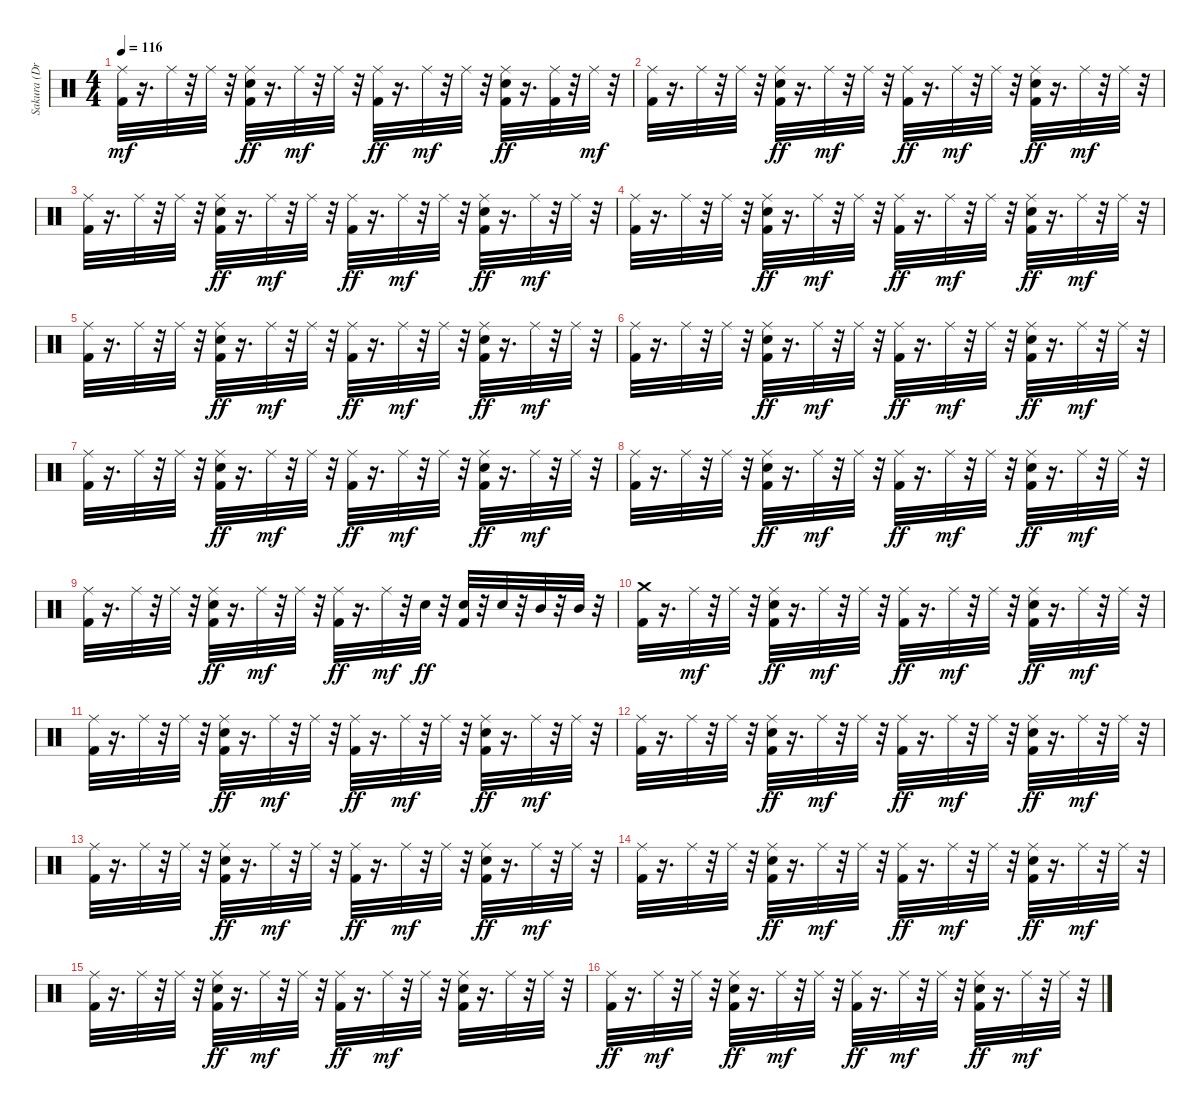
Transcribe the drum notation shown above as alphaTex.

\track ("Sakura (Drums)" "Sakura (Dr") {instrument percussion}
\staff {score}
\articulation defaults
\ts (4 4)
\tempo 116
\clef neutral
\ks c
("Kick (hit) 2" "Ride (middle)").32{dy mf} r.16{d} "Ride (middle)".32 r.32 "Ride (middle)".32 r.32 ("Ride (middle)" "Electric Snare (hit)" "Kick (hit) 2").32{dy ff} r.16{d} "Ride (middle)".32{dy mf} r.32 "Ride (middle)".32 r.32 ("Ride (middle)" "Kick (hit) 2").32{dy ff} r.16{d} "Ride (middle)".32{dy mf} r.32 "Ride (middle)".32 r.32 ("Ride (middle)" "Electric Snare (hit)" "Kick (hit) 2").32{dy ff} r.16{d} ("Ride (middle)" "Kick (hit) 2").32 r.32 "Ride (middle)".32{dy mf} r.32 |
("Kick (hit) 2" "Ride (middle)").32 r.16{d} "Ride (middle)".32 r.32 "Ride (middle)".32 r.32 ("Ride (middle)" "Electric Snare (hit)" "Kick (hit) 2").32{dy ff} r.16{d} "Ride (middle)".32{dy mf} r.32 "Ride (middle)".32 r.32 ("Ride (middle)" "Kick (hit) 2").32{dy ff} r.16{d} "Ride (middle)".32{dy mf} r.32 "Ride (middle)".32 r.32 ("Ride (middle)" "Electric Snare (hit)" "Kick (hit) 2").32{dy ff} r.16{d} "Ride (middle)".32{dy mf} r.32 "Ride (middle)".32 r.32 |
("Kick (hit) 2" "Ride (middle)").32 r.16{d} "Ride (middle)".32 r.32 "Ride (middle)".32 r.32 ("Ride (middle)" "Electric Snare (hit)" "Kick (hit) 2").32{dy ff} r.16{d} "Ride (middle)".32{dy mf} r.32 "Ride (middle)".32 r.32 ("Ride (middle)" "Kick (hit) 2").32{dy ff} r.16{d} "Ride (middle)".32{dy mf} r.32 "Ride (middle)".32 r.32 ("Ride (middle)" "Electric Snare (hit)" "Kick (hit) 2").32{dy ff} r.16{d} "Ride (middle)".32{dy mf} r.32 "Ride (middle)".32 r.32 |
("Kick (hit) 2" "Ride (middle)").32 r.16{d} "Ride (middle)".32 r.32 "Ride (middle)".32 r.32 ("Ride (middle)" "Electric Snare (hit)" "Kick (hit) 2").32{dy ff} r.16{d} "Ride (middle)".32{dy mf} r.32 "Ride (middle)".32 r.32 ("Ride (middle)" "Kick (hit) 2").32{dy ff} r.16{d} "Ride (middle)".32{dy mf} r.32 "Ride (middle)".32 r.32 ("Ride (middle)" "Electric Snare (hit)" "Kick (hit) 2").32{dy ff} r.16{d} "Ride (middle)".32{dy mf} r.32 "Ride (middle)".32 r.32 |
("Kick (hit) 2" "Ride (middle)").32 r.16{d} "Ride (middle)".32 r.32 "Ride (middle)".32 r.32 ("Ride (middle)" "Electric Snare (hit)" "Kick (hit) 2").32{dy ff} r.16{d} "Ride (middle)".32{dy mf} r.32 "Ride (middle)".32 r.32 ("Ride (middle)" "Kick (hit) 2").32{dy ff} r.16{d} "Ride (middle)".32{dy mf} r.32 "Ride (middle)".32 r.32 ("Ride (middle)" "Electric Snare (hit)" "Kick (hit) 2").32{dy ff} r.16{d} "Ride (middle)".32{dy mf} r.32 "Ride (middle)".32 r.32 |
("Kick (hit) 2" "Ride (middle)").32 r.16{d} "Ride (middle)".32 r.32 "Ride (middle)".32 r.32 ("Ride (middle)" "Electric Snare (hit)" "Kick (hit) 2").32{dy ff} r.16{d} "Ride (middle)".32{dy mf} r.32 "Ride (middle)".32 r.32 ("Ride (middle)" "Kick (hit) 2").32{dy ff} r.16{d} "Ride (middle)".32{dy mf} r.32 "Ride (middle)".32 r.32 ("Ride (middle)" "Electric Snare (hit)" "Kick (hit) 2").32{dy ff} r.16{d} "Ride (middle)".32{dy mf} r.32 "Ride (middle)".32 r.32 |
("Kick (hit) 2" "Ride (middle)").32 r.16{d} "Ride (middle)".32 r.32 "Ride (middle)".32 r.32 ("Ride (middle)" "Electric Snare (hit)" "Kick (hit) 2").32{dy ff} r.16{d} "Ride (middle)".32{dy mf} r.32 "Ride (middle)".32 r.32 ("Ride (middle)" "Kick (hit) 2").32{dy ff} r.16{d} "Ride (middle)".32{dy mf} r.32 "Ride (middle)".32 r.32 ("Ride (middle)" "Electric Snare (hit)" "Kick (hit) 2").32{dy ff} r.16{d} "Ride (middle)".32{dy mf} r.32 "Ride (middle)".32 r.32 |
("Kick (hit) 2" "Ride (middle)").32 r.16{d} "Ride (middle)".32 r.32 "Ride (middle)".32 r.32 ("Ride (middle)" "Electric Snare (hit)" "Kick (hit) 2").32{dy ff} r.16{d} "Ride (middle)".32{dy mf} r.32 "Ride (middle)".32 r.32 ("Ride (middle)" "Kick (hit) 2").32{dy ff} r.16{d} "Ride (middle)".32{dy mf} r.32 "Ride (middle)".32 r.32 ("Ride (middle)" "Electric Snare (hit)" "Kick (hit) 2").32{dy ff} r.16{d} "Ride (middle)".32{dy mf} r.32 "Ride (middle)".32 r.32 |
("Kick (hit) 2" "Ride (middle)").32 r.16{d} "Ride (middle)".32 r.32 "Ride (middle)".32 r.32 ("Ride (middle)" "Electric Snare (hit)" "Kick (hit) 2").32{dy ff} r.16{d} "Ride (middle)".32{dy mf} r.32 "Ride (middle)".32 r.32 ("Ride (middle)" "Kick (hit) 2").32{dy ff} r.16{d} "Ride (middle)".32{dy mf} r.32 "Electric Snare (hit)".32{dy ff} r.32 ("Electric Snare (hit)" "Kick (hit) 2").32 r.32 "Electric Snare (hit)".32 r.32 "Mid Tom (hit)".32 r.32 "Mid Tom (hit)".32 r.32 |
("Crash medium (hit)" "Kick (hit) 2").32 r.16{d} "Ride (middle)".32{dy mf} r.32 "Ride (middle)".32 r.32 ("Ride (middle)" "Electric Snare (hit)" "Kick (hit) 2").32{dy ff} r.16{d} "Ride (middle)".32{dy mf} r.32 "Ride (middle)".32 r.32 ("Ride (middle)" "Kick (hit) 2").32{dy ff} r.16{d} "Ride (middle)".32{dy mf} r.32 "Ride (middle)".32 r.32 ("Ride (middle)" "Electric Snare (hit)" "Kick (hit) 2").32{dy ff} r.16{d} "Ride (middle)".32{dy mf} r.32 "Ride (middle)".32 r.32 |
("Kick (hit) 2" "Ride (middle)").32 r.16{d} "Ride (middle)".32 r.32 "Ride (middle)".32 r.32 ("Ride (middle)" "Electric Snare (hit)" "Kick (hit) 2").32{dy ff} r.16{d} "Ride (middle)".32{dy mf} r.32 "Ride (middle)".32 r.32 ("Ride (middle)" "Kick (hit) 2").32{dy ff} r.16{d} "Ride (middle)".32{dy mf} r.32 "Ride (middle)".32 r.32 ("Ride (middle)" "Electric Snare (hit)" "Kick (hit) 2").32{dy ff} r.16{d} "Ride (middle)".32{dy mf} r.32 "Ride (middle)".32 r.32 |
("Kick (hit) 2" "Ride (middle)").32 r.16{d} "Ride (middle)".32 r.32 "Ride (middle)".32 r.32 ("Ride (middle)" "Electric Snare (hit)" "Kick (hit) 2").32{dy ff} r.16{d} "Ride (middle)".32{dy mf} r.32 "Ride (middle)".32 r.32 ("Ride (middle)" "Kick (hit) 2").32{dy ff} r.16{d} "Ride (middle)".32{dy mf} r.32 "Ride (middle)".32 r.32 ("Ride (middle)" "Electric Snare (hit)" "Kick (hit) 2").32{dy ff} r.16{d} "Ride (middle)".32{dy mf} r.32 "Ride (middle)".32 r.32 |
("Kick (hit) 2" "Ride (middle)").32 r.16{d} "Ride (middle)".32 r.32 "Ride (middle)".32 r.32 ("Ride (middle)" "Electric Snare (hit)" "Kick (hit) 2").32{dy ff} r.16{d} "Ride (middle)".32{dy mf} r.32 "Ride (middle)".32 r.32 ("Ride (middle)" "Kick (hit) 2").32{dy ff} r.16{d} "Ride (middle)".32{dy mf} r.32 "Ride (middle)".32 r.32 ("Ride (middle)" "Electric Snare (hit)" "Kick (hit) 2").32{dy ff} r.16{d} "Ride (middle)".32{dy mf} r.32 "Ride (middle)".32 r.32 |
("Kick (hit) 2" "Ride (middle)").32 r.16{d} "Ride (middle)".32 r.32 "Ride (middle)".32 r.32 ("Ride (middle)" "Electric Snare (hit)" "Kick (hit) 2").32{dy ff} r.16{d} "Ride (middle)".32{dy mf} r.32 "Ride (middle)".32 r.32 ("Ride (middle)" "Kick (hit) 2").32{dy ff} r.16{d} "Ride (middle)".32{dy mf} r.32 "Ride (middle)".32 r.32 ("Ride (middle)" "Electric Snare (hit)" "Kick (hit) 2").32{dy ff} r.16{d} "Ride (middle)".32{dy mf} r.32 "Ride (middle)".32 r.32 |
("Kick (hit) 2" "Ride (middle)").32 r.16{d} "Ride (middle)".32 r.32 "Ride (middle)".32 r.32 ("Ride (middle)" "Electric Snare (hit)" "Kick (hit) 2").32{dy ff} r.16{d} "Ride (middle)".32{dy mf} r.32 "Ride (middle)".32 r.32 ("Ride (middle)" "Kick (hit) 2").32{dy ff} r.16{d} "Ride (middle)".32{dy mf} r.32 "Ride (middle)".32 r.32 ("Electric Snare (hit)" "Kick (hit) 2" "Ride (middle)").32 r.16{d} "Ride (middle)".32 r.32 "Ride (middle)".32 r.32 |
("Ride (middle)" "Kick (hit) 2").32{dy ff} r.16{d} "Ride (middle)".32{dy mf} r.32 "Ride (middle)".32 r.32 ("Ride (middle)" "Electric Snare (hit)" "Kick (hit) 2").32{dy ff} r.16{d} "Ride (middle)".32{dy mf} r.32 "Ride (middle)".32 r.32 ("Ride (middle)" "Kick (hit) 2").32{dy ff} r.16{d} "Ride (middle)".32{dy mf} r.32 "Ride (middle)".32 r.32 ("Ride (middle)" "Electric Snare (hit)" "Kick (hit) 2").32{dy ff} r.16{d} "Ride (middle)".32{dy mf} r.32 "Ride (middle)".32 r.32
